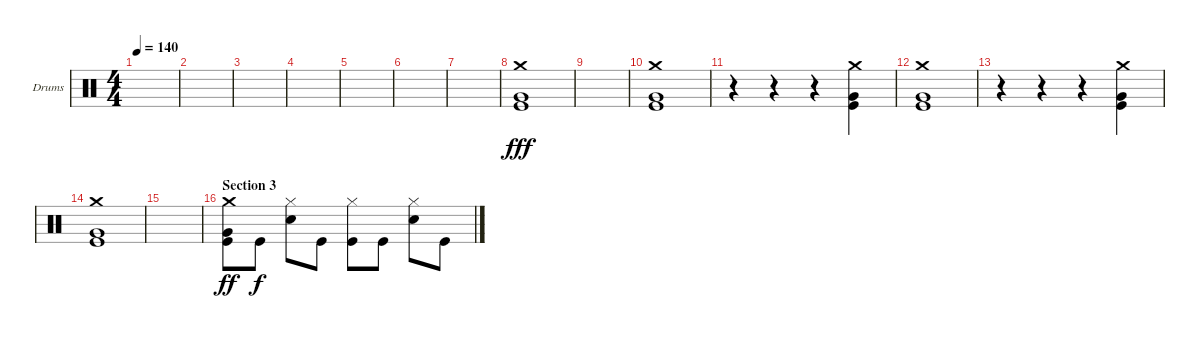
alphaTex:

\defaultSystemsLayout 4
\bracketExtendMode groupsimilarinstruments
\firstSystemTrackNameOrientation horizontal
\otherSystemsTrackNameOrientation horizontal
\track ("Drums" "Drums") {instrument percussion}
\staff {score}
\articulation defaults
\ts (4 4)
\tempo 140
\clef neutral
\scale
0.333333
\ks aminor
|
\scale
0.333333 |
\scale
0.333333 |
\scale
0.333333 |
\scale
0.333333 |
\scale
0.333333 |
\scale
0.333333 |
\scale
0.333333 ("Kick (hit)" "Very Low Tom (hit)" "Crash medium (hit)").1{dy fff} |
\scale
0.333333 |
\scale
0.333333 ("Kick (hit)" "Very Low Tom (hit)" "Crash medium (hit)").1 |
\scale
0.333333 r.4 r.4 r.4 ("Kick (hit)" "Very Low Tom (hit)" "Crash medium (hit)").4 |
\scale
0.333333 ("Kick (hit)" "Very Low Tom (hit)" "Crash medium (hit)").1 |
\scale
0.333333 r.4 r.4 r.4 ("Kick (hit)" "Very Low Tom (hit)" "Crash medium (hit)").4 |
\scale
0.333333 ("Kick (hit)" "Very Low Tom (hit)" "Crash medium (hit)").1 |
\scale
0.333333 |
\section ("" "Section 3")
\scale
0.333333 ("Kick (hit)" "Very Low Tom (hit)" "Crash medium (hit)").8{dy ff} "Kick (hit)".8{dy f} ("Snare (hit) 2" "Hi-Hat (closed)").8 "Kick (hit)".8 ("Kick (hit)" "Hi-Hat (closed)").8 "Kick (hit)".8 ("Snare (hit) 2" "Hi-Hat (closed)").8 "Kick (hit)".8
